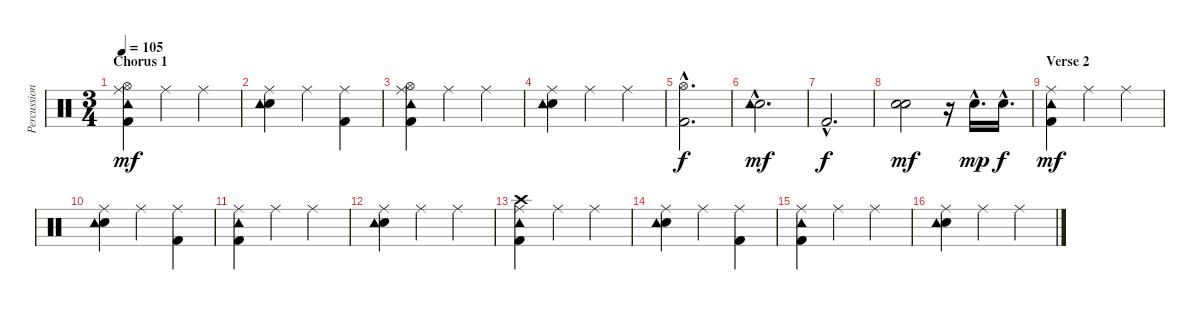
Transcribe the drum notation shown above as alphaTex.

\track ("Percussion" "Percussion") {instrument percussion}
\staff {score}
\articulation defaults
\ts (3 4)
\section ("" "Chorus 1")
\tempo 105
\clef neutral
\ks c
("Kick (hit) 2" "Tambourine (hit)" "Hi-Hat (open)" "Ride (middle)").4{dy mf} "Ride (middle)".4 "Ride (middle)".4 |
("Snare (hit) 2" "Tambourine (hit)" "Ride (middle)").4 "Ride (middle)".4 ("Kick (hit) 2" "Ride (middle)").4 |
("Kick (hit) 2" "Tambourine (hit)" "Hi-Hat (open)" "Ride (middle)").4 "Ride (middle)".4 "Ride (middle)".4 |
("Snare (hit) 2" "Tambourine (hit)" "Ride (middle)").4 "Ride (middle)".4 "Ride (middle)".4 |
("Kick (hit) 2"{hac} "Hi-Hat (open)"{hac}).2{d dy f} |
("Snare (hit) 2"{hac} "Tambourine (hit)"{hac}).2{d dy mf} |
"Kick (hit) 2"{hac}.2{d dy f} |
("Snare (hit) 2" "Snare (hit) 2").2{bd 240 dy mf} r.16 "Snare (hit) 2"{hac}.16{d dy mp} "Snare (hit) 2"{hac}.16{d dy f} |
\section ("" "Verse 2")
("Kick (hit) 2" "Tambourine (hit)" "Ride (middle)").4{dy mf} "Ride (middle)".4 "Ride (middle)".4 |
("Snare (hit) 2" "Tambourine (hit)" "Ride (middle)").4 "Ride (middle)".4 ("Kick (hit) 2" "Ride (middle)").4 |
("Kick (hit) 2" "Tambourine (hit)" "Ride (middle)").4 "Ride (middle)".4 "Ride (middle)".4 |
("Snare (hit) 2" "Tambourine (hit)" "Ride (middle)").4 "Ride (middle)".4 "Ride (middle)".4 |
("Kick (hit) 2" "Tambourine (hit)" "Crash high (hit)" "Ride (middle)").4 "Ride (middle)".4 "Ride (middle)".4 |
("Snare (hit) 2" "Tambourine (hit)" "Ride (middle)").4 "Ride (middle)".4 ("Kick (hit) 2" "Ride (middle)").4 |
("Kick (hit) 2" "Tambourine (hit)" "Ride (middle)").4 "Ride (middle)".4 "Ride (middle)".4 |
("Snare (hit) 2" "Tambourine (hit)" "Ride (middle)").4 "Ride (middle)".4 "Ride (middle)".4
